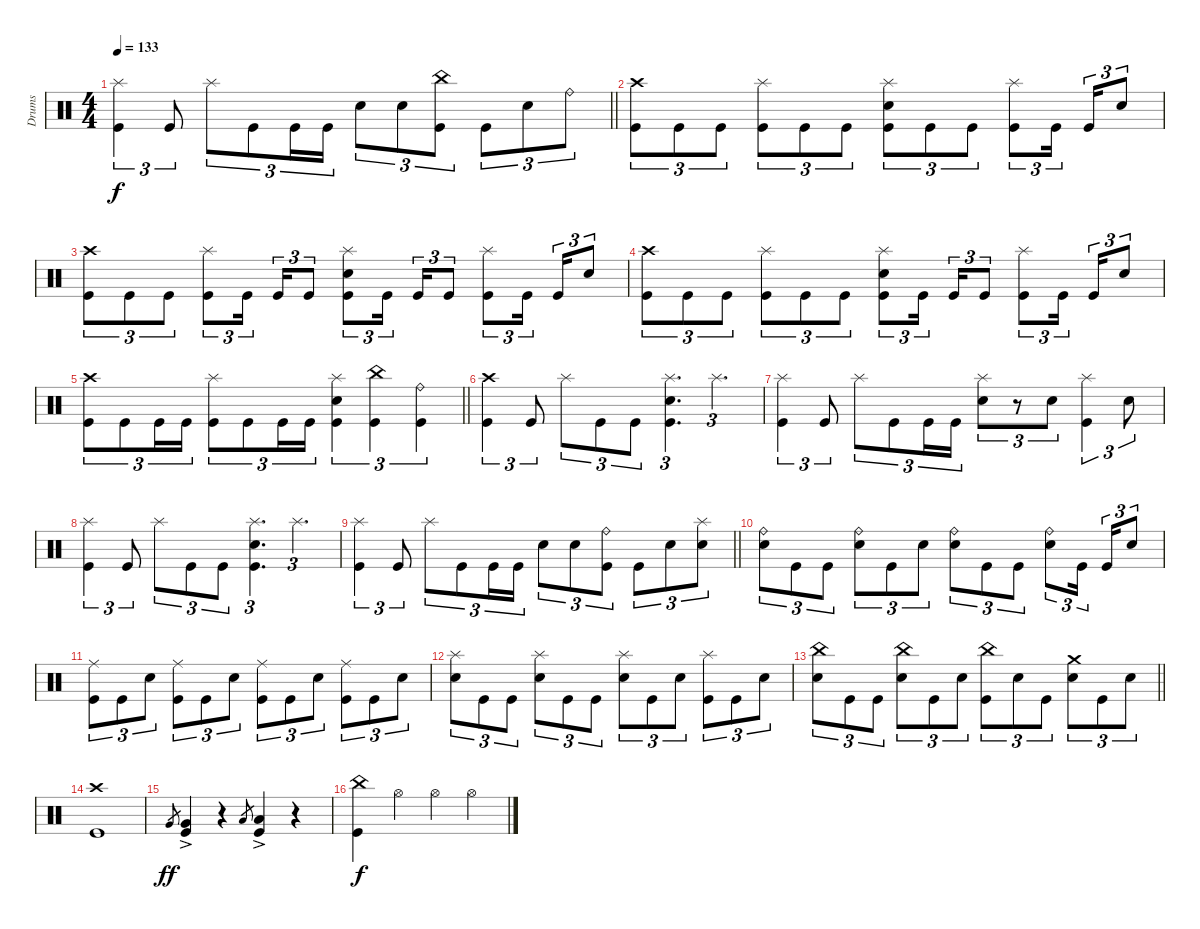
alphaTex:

\track ("Drums" "Drums") {instrument percussion}
\staff
\articulation defaults
\ts (4 4)
\tempo 133
\clef neutral
\barLineRight lightlight
\ks c
("Splash (hit)" "Kick (hit)").4{tu (3 2) dy f} "Kick (hit)".8{tu (3 2)} "Splash (hit)".8{tu (3 2)} "Kick (hit)".8{tu (3 2)} "Kick (hit)".16{tu (3 2)} "Kick (hit)".16{tu (3 2)} "Electric Snare (hit)".8{tu (3 2)} "Electric Snare (hit)".8{tu (3 2)} ("China (hit)" "Kick (hit)").8{tu (3 2)} "Kick (hit)".8{tu (3 2)} "Electric Snare (hit)".8{tu (3 2)} "Ride (bell)".8{tu (3 2)} |
("Crash high (hit)" "Kick (hit)").8{tu (3 2)} "Kick (hit)".8{tu (3 2)} "Kick (hit)".8{tu (3 2)} ("Splash (hit)" "Kick (hit)").8{tu (3 2)} "Kick (hit)".8{tu (3 2)} "Kick (hit)".8{tu (3 2)} ("Splash (hit)" "Electric Snare (hit)" "Kick (hit)").8{tu (3 2)} "Kick (hit)".8{tu (3 2)} "Kick (hit)".8{tu (3 2)} ("Splash (hit)" "Kick (hit)").8{tu (3 2)} "Kick (hit)".16{tu (3 2) beam splitsecondary} "Kick (hit)".16{tu (3 2)} "Electric Snare (hit)".8{tu (3 2)} |
("Crash high (hit)" "Kick (hit)").8{tu (3 2)} "Kick (hit)".8{tu (3 2)} "Kick (hit)".8{tu (3 2)} ("Splash (hit)" "Kick (hit)").8{tu (3 2)} "Kick (hit)".16{tu (3 2) beam splitsecondary} "Kick (hit)".16{tu (3 2)} "Kick (hit)".8{tu (3 2)} ("Splash (hit)" "Electric Snare (hit)" "Kick (hit)").8{tu (3 2)} "Kick (hit)".16{tu (3 2) beam splitsecondary} "Kick (hit)".16{tu (3 2)} "Kick (hit)".8{tu (3 2)} ("Splash (hit)" "Kick (hit)").8{tu (3 2)} "Kick (hit)".16{tu (3 2) beam splitsecondary} "Kick (hit)".16{tu (3 2)} "Electric Snare (hit)".8{tu (3 2)} |
("Crash high (hit)" "Kick (hit)").8{tu (3 2)} "Kick (hit)".8{tu (3 2)} "Kick (hit)".8{tu (3 2)} ("Splash (hit)" "Kick (hit)").8{tu (3 2)} "Kick (hit)".8{tu (3 2)} "Kick (hit)".8{tu (3 2)} ("Splash (hit)" "Electric Snare (hit)" "Kick (hit)").8{tu (3 2)} "Kick (hit)".16{tu (3 2) beam splitsecondary} "Kick (hit)".16{tu (3 2)} "Kick (hit)".8{tu (3 2)} ("Splash (hit)" "Kick (hit)").8{tu (3 2)} "Kick (hit)".16{tu (3 2) beam splitsecondary} "Kick (hit)".16{tu (3 2)} "Electric Snare (hit)".8{tu (3 2)} |
\barLineRight lightlight
("Crash high (hit)" "Kick (hit)").8{tu (3 2)} "Kick (hit)".8{tu (3 2)} "Kick (hit)".16{tu (3 2)} "Kick (hit)".16{tu (3 2)} ("Splash (hit)" "Kick (hit)").8{tu (3 2)} "Kick (hit)".8{tu (3 2)} "Kick (hit)".16{tu (3 2)} "Kick (hit)".16{tu (3 2)} ("Splash (hit)" "Electric Snare (hit)" "Kick (hit)").4{tu (3 2)} ("China (hit)" "Kick (hit)").4{tu (3 2)} ("Ride (bell)" "Kick (hit)").4{tu (3 2)} |
("Crash high (hit)" "Kick (hit)").4{tu (3 2)} "Kick (hit)".8{tu (3 2)} "Splash (hit)".8{tu (3 2)} "Kick (hit)".8{tu (3 2)} "Kick (hit)".8{tu (3 2)} ("Splash (hit)" "Electric Snare (hit)" "Kick (hit)").4{d tu (3 2)} "Splash (hit)".4{d tu (3 2)} |
("Splash (hit)" "Kick (hit)").4{tu (3 2)} "Kick (hit)".8{tu (3 2)} "Splash (hit)".8{tu (3 2)} "Kick (hit)".8{tu (3 2)} "Kick (hit)".16{tu (3 2)} "Kick (hit)".16{tu (3 2)} ("Splash (hit)" "Electric Snare (hit)").8{tu (3 2)} r.8{tu (3 2)} "Electric Snare (hit)".8{tu (3 2)} ("Splash (hit)" "Kick (hit)").4{tu (3 2)} "Electric Snare (hit)".8{tu (3 2)} |
("Splash (hit)" "Kick (hit)").4{tu (3 2)} "Kick (hit)".8{tu (3 2)} "Splash (hit)".8{tu (3 2)} "Kick (hit)".8{tu (3 2)} "Kick (hit)".8{tu (3 2)} ("Splash (hit)" "Electric Snare (hit)" "Kick (hit)").4{d tu (3 2)} "Splash (hit)".4{d tu (3 2)} |
\barLineRight lightlight
("Splash (hit)" "Kick (hit)").4{tu (3 2)} "Kick (hit)".8{tu (3 2)} "Splash (hit)".8{tu (3 2)} "Kick (hit)".8{tu (3 2)} "Kick (hit)".16{tu (3 2)} "Kick (hit)".16{tu (3 2)} "Electric Snare (hit)".8{tu (3 2)} "Electric Snare (hit)".8{tu (3 2)} ("Ride (bell)" "Kick (hit)").8{tu (3 2)} "Kick (hit)".8{tu (3 2)} "Electric Snare (hit)".8{tu (3 2)} ("Splash (hit)" "Electric Snare (hit)").8{tu (3 2)} |
("Ride (bell)" "Electric Snare (hit)").8{tu (3 2)} "Kick (hit)".8{tu (3 2)} "Kick (hit)".8{tu (3 2)} ("Ride (bell)" "Electric Snare (hit)").8{tu (3 2)} "Kick (hit)".8{tu (3 2)} "Electric Snare (hit)".8{tu (3 2)} ("Ride (bell)" "Electric Snare (hit)").8{tu (3 2)} "Kick (hit)".8{tu (3 2)} "Kick (hit)".8{tu (3 2)} ("Ride (bell)" "Electric Snare (hit)").8{tu (3 2)} "Kick (hit)".16{tu (3 2) beam splitsecondary} "Kick (hit)".16{tu (3 2)} "Electric Snare (hit)".8{tu (3 2)} |
("Ride (middle)" "Kick (hit)").8{tu (3 2)} "Kick (hit)".8{tu (3 2)} "Electric Snare (hit)".8{tu (3 2)} ("Ride (middle)" "Kick (hit)").8{tu (3 2)} "Kick (hit)".8{tu (3 2)} "Electric Snare (hit)".8{tu (3 2)} ("Ride (middle)" "Kick (hit)").8{tu (3 2)} "Kick (hit)".8{tu (3 2)} "Electric Snare (hit)".8{tu (3 2)} ("Ride (middle)" "Kick (hit)").8{tu (3 2)} "Kick (hit)".8{tu (3 2)} "Electric Snare (hit)".8{tu (3 2)} |
("Splash (hit)" "Electric Snare (hit)").8{tu (3 2)} "Kick (hit)".8{tu (3 2)} "Kick (hit)".8{tu (3 2)} ("Splash (hit)" "Electric Snare (hit)").8{tu (3 2)} "Kick (hit)".8{tu (3 2)} "Kick (hit)".8{tu (3 2)} ("Splash (hit)" "Electric Snare (hit)").8{tu (3 2)} "Kick (hit)".8{tu (3 2)} "Electric Snare (hit)".8{tu (3 2)} ("Splash (hit)" "Kick (hit)").8{tu (3 2)} "Kick (hit)".8{tu (3 2)} "Electric Snare (hit)".8{tu (3 2)} |
\barLineRight lightlight
("China (hit)" "Electric Snare (hit)").8{tu (3 2)} "Kick (hit)".8{tu (3 2)} "Kick (hit)".8{tu (3 2)} ("China (hit)" "Electric Snare (hit)").8{tu (3 2)} "Kick (hit)".8{tu (3 2)} "Electric Snare (hit)".8{tu (3 2)} ("China (hit)" "Kick (hit)").8{tu (3 2)} "Electric Snare (hit)".8{tu (3 2)} "Kick (hit)".8{tu (3 2)} ("Crash medium (hit)" "Electric Snare (hit)").8{tu (3 2)} "Kick (hit)".8{tu (3 2)} "Electric Snare (hit)".8{tu (3 2)} |
\section ("" "")
("Crash high (hit)" "Kick (hit)").1 |
"Very Low Tom (hit)".8{gr dy ff} ("Very Low Tom (hit)"{ac} "Kick (hit)").4 r.4 "Low Floor Tom (hit)".8{gr} ("Low Floor Tom (hit)"{ac} "Kick (hit)").4 r.4 |
("China (hit)" "Kick (hit)").4{dy f} "Hi-Hat (open)".4 "Hi-Hat (open)".4 "Hi-Hat (open)".4
